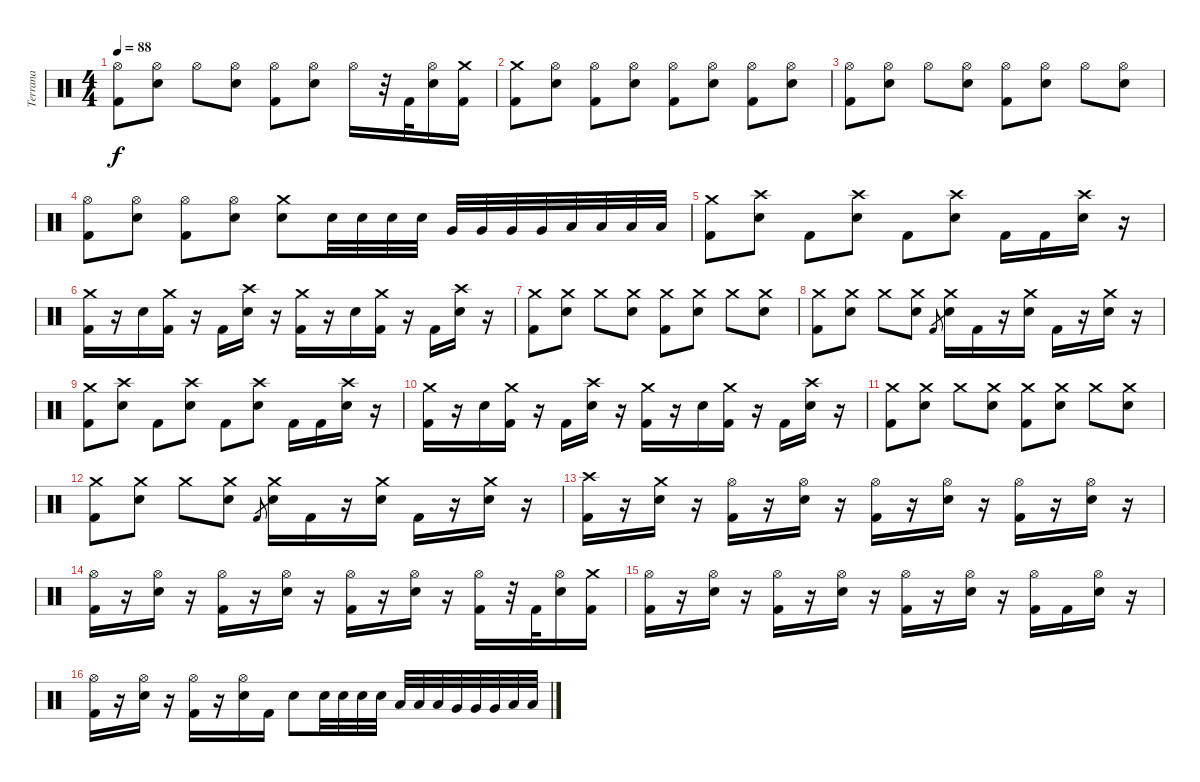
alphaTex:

\track ("Terrana" "Terrana") {instrument percussion}
\staff {score}
\articulation defaults
\ts (4 4)
\tempo 88
\clef neutral
\ks c
("Hi-Hat (open)" "Kick (hit) 2").8{dy f} ("Hi-Hat (open)" "Electric Snare (hit)").8 "Hi-Hat (open)".8 ("Hi-Hat (open)" "Electric Snare (hit)").8 ("Hi-Hat (open)" "Kick (hit) 2").8 ("Hi-Hat (open)" "Electric Snare (hit)").8 "Hi-Hat (open)".16 r.32 "Kick (hit) 2".32 ("Hi-Hat (open)" "Electric Snare (hit)").16 ("Crash medium (hit)" "Kick (hit) 2").16 |
("Crash medium (hit)" "Kick (hit) 2").8 ("Hi-Hat (open)" "Electric Snare (hit)").8 ("Hi-Hat (open)" "Kick (hit) 2").8 ("Hi-Hat (open)" "Electric Snare (hit)").8 ("Hi-Hat (open)" "Kick (hit) 2").8 ("Hi-Hat (open)" "Electric Snare (hit)").8 ("Hi-Hat (open)" "Kick (hit) 2").8 ("Hi-Hat (open)" "Electric Snare (hit)").8 |
("Hi-Hat (open)" "Kick (hit) 2").8 ("Hi-Hat (open)" "Electric Snare (hit)").8 "Hi-Hat (open)".8 ("Hi-Hat (open)" "Electric Snare (hit)").8 ("Hi-Hat (open)" "Kick (hit) 2").8 ("Hi-Hat (open)" "Electric Snare (hit)").8 "Hi-Hat (open)".8 ("Hi-Hat (open)" "Electric Snare (hit)").8 |
("Hi-Hat (open)" "Kick (hit) 2").8 ("Hi-Hat (open)" "Electric Snare (hit)").8 ("Hi-Hat (open)" "Kick (hit) 2").8 ("Hi-Hat (open)" "Electric Snare (hit)").8 ("Crash medium (hit)" "Electric Snare (hit)").8 "Electric Snare (hit)".32 "Electric Snare (hit)".32 "Electric Snare (hit)".32 "Electric Snare (hit)".32 "Very Low Tom (hit)".32 "Very Low Tom (hit)".32 "Very Low Tom (hit)".32 "Very Low Tom (hit)".32 "Low Floor Tom (hit)".32 "Low Floor Tom (hit)".32 "Low Floor Tom (hit)".32 "Low Floor Tom (hit)".32 |
("Crash medium (hit)" "Kick (hit) 2").8 ("Crash high (hit)" "Electric Snare (hit)").8 "Kick (hit) 2".8 ("Crash high (hit)" "Electric Snare (hit)").8 "Kick (hit) 2".8 ("Crash high (hit)" "Electric Snare (hit)").8 "Kick (hit) 2".16 "Kick (hit) 2".16 ("Crash high (hit)" "Electric Snare (hit)").16 r.16 |
("Crash medium (hit)" "Kick (hit) 2").16 r.16 "Electric Snare (hit)".16 ("Crash medium (hit)" "Kick (hit) 2").16 r.16 "Kick (hit) 2".16 ("Crash high (hit)" "Electric Snare (hit)").16 r.16 ("Crash medium (hit)" "Kick (hit) 2").16 r.16 "Electric Snare (hit)".16 ("Crash medium (hit)" "Kick (hit) 2").16 r.16 "Kick (hit) 2".16 ("Crash high (hit)" "Electric Snare (hit)").16 r.16 |
("Crash medium (hit)" "Kick (hit) 2").8 ("Crash medium (hit)" "Electric Snare (hit)").8 "Crash medium (hit)".8 ("Crash medium (hit)" "Electric Snare (hit)").8 ("Crash medium (hit)" "Kick (hit) 2").8 ("Crash medium (hit)" "Electric Snare (hit)").8 "Crash medium (hit)".8 ("Crash medium (hit)" "Electric Snare (hit)").8 |
("Crash medium (hit)" "Kick (hit) 2").8 ("Crash medium (hit)" "Electric Snare (hit)").8 "Crash medium (hit)".8 ("Crash medium (hit)" "Electric Snare (hit)").8 "Kick (hit) 2".8{gr} ("Crash medium (hit)" "Electric Snare (hit)").16 "Kick (hit) 2".16 r.16 ("Crash medium (hit)" "Electric Snare (hit)").16 "Kick (hit) 2".16 r.16 ("Crash medium (hit)" "Electric Snare (hit)").16 r.16 |
("Crash medium (hit)" "Kick (hit) 2").8 ("Crash high (hit)" "Electric Snare (hit)").8 "Kick (hit) 2".8 ("Crash high (hit)" "Electric Snare (hit)").8 "Kick (hit) 2".8 ("Crash high (hit)" "Electric Snare (hit)").8 "Kick (hit) 2".16 "Kick (hit) 2".16 ("Crash high (hit)" "Electric Snare (hit)").16 r.16 |
("Crash medium (hit)" "Kick (hit) 2").16 r.16 "Electric Snare (hit)".16 ("Crash medium (hit)" "Kick (hit) 2").16 r.16 "Kick (hit) 2".16 ("Crash high (hit)" "Electric Snare (hit)").16 r.16 ("Crash medium (hit)" "Kick (hit) 2").16 r.16 "Electric Snare (hit)".16 ("Crash medium (hit)" "Kick (hit) 2").16 r.16 "Kick (hit) 2".16 ("Crash high (hit)" "Electric Snare (hit)").16 r.16 |
("Crash medium (hit)" "Kick (hit) 2").8 ("Crash medium (hit)" "Electric Snare (hit)").8 "Crash medium (hit)".8 ("Crash medium (hit)" "Electric Snare (hit)").8 ("Crash medium (hit)" "Kick (hit) 2").8 ("Crash medium (hit)" "Electric Snare (hit)").8 "Crash medium (hit)".8 ("Crash medium (hit)" "Electric Snare (hit)").8 |
("Crash medium (hit)" "Kick (hit) 2").8 ("Crash medium (hit)" "Electric Snare (hit)").8 "Crash medium (hit)".8 ("Crash medium (hit)" "Electric Snare (hit)").8 "Kick (hit) 2".8{gr} ("Crash medium (hit)" "Electric Snare (hit)").16 "Kick (hit) 2".16 r.16 ("Crash medium (hit)" "Electric Snare (hit)").16 "Kick (hit) 2".16 r.16 ("Crash medium (hit)" "Electric Snare (hit)").16 r.16 |
("Crash high (hit)" "Kick (hit) 2").16 r.16 ("Crash medium (hit)" "Electric Snare (hit)").16 r.16 ("Hi-Hat (open)" "Kick (hit) 2").16 r.16 ("Hi-Hat (open)" "Electric Snare (hit)").16 r.16 ("Hi-Hat (open)" "Kick (hit) 2").16 r.16 ("Hi-Hat (open)" "Electric Snare (hit)").16 r.16 ("Hi-Hat (open)" "Kick (hit) 2").16 r.16 ("Hi-Hat (open)" "Electric Snare (hit)").16 r.16 |
("Hi-Hat (open)" "Kick (hit) 2").16 r.16 ("Hi-Hat (open)" "Electric Snare (hit)").16 r.16 ("Hi-Hat (open)" "Kick (hit) 2").16 r.16 ("Hi-Hat (open)" "Electric Snare (hit)").16 r.16 ("Hi-Hat (open)" "Kick (hit) 2").16 r.16 ("Hi-Hat (open)" "Electric Snare (hit)").16 r.16 ("Hi-Hat (open)" "Kick (hit) 2").16 r.32 "Kick (hit) 2".32 ("Hi-Hat (open)" "Electric Snare (hit)").16 ("Crash medium (hit)" "Kick (hit) 2").16 |
("Hi-Hat (open)" "Kick (hit) 2").16 r.16 ("Hi-Hat (open)" "Electric Snare (hit)").16 r.16 ("Hi-Hat (open)" "Kick (hit) 2").16 r.16 ("Hi-Hat (open)" "Electric Snare (hit)").16 r.16 ("Hi-Hat (open)" "Kick (hit) 2").16 r.16 ("Hi-Hat (open)" "Electric Snare (hit)").16 r.16 ("Hi-Hat (open)" "Kick (hit) 2").16 "Kick (hit) 2".16 ("Hi-Hat (open)" "Electric Snare (hit)").16 r.16 |
("Hi-Hat (open)" "Kick (hit) 2").16 r.16 ("Hi-Hat (open)" "Electric Snare (hit)").16 r.16 ("Hi-Hat (open)" "Kick (hit) 2").16 r.16 ("Hi-Hat (open)" "Electric Snare (hit)").16 "Kick (hit) 2".16 "Electric Snare (hit)".8 "Electric Snare (hit)".32 "Electric Snare (hit)".32 "Electric Snare (hit)".32 "Electric Snare (hit)".32 "Low Tom (hit)".32 "Low Tom (hit)".32 "Low Tom (hit)".32 "Very Low Tom (hit)".32 "Very Low Tom (hit)".32 "Very Low Tom (hit)".32 "Low Floor Tom (hit)".32 "Low Floor Tom (hit)".32
